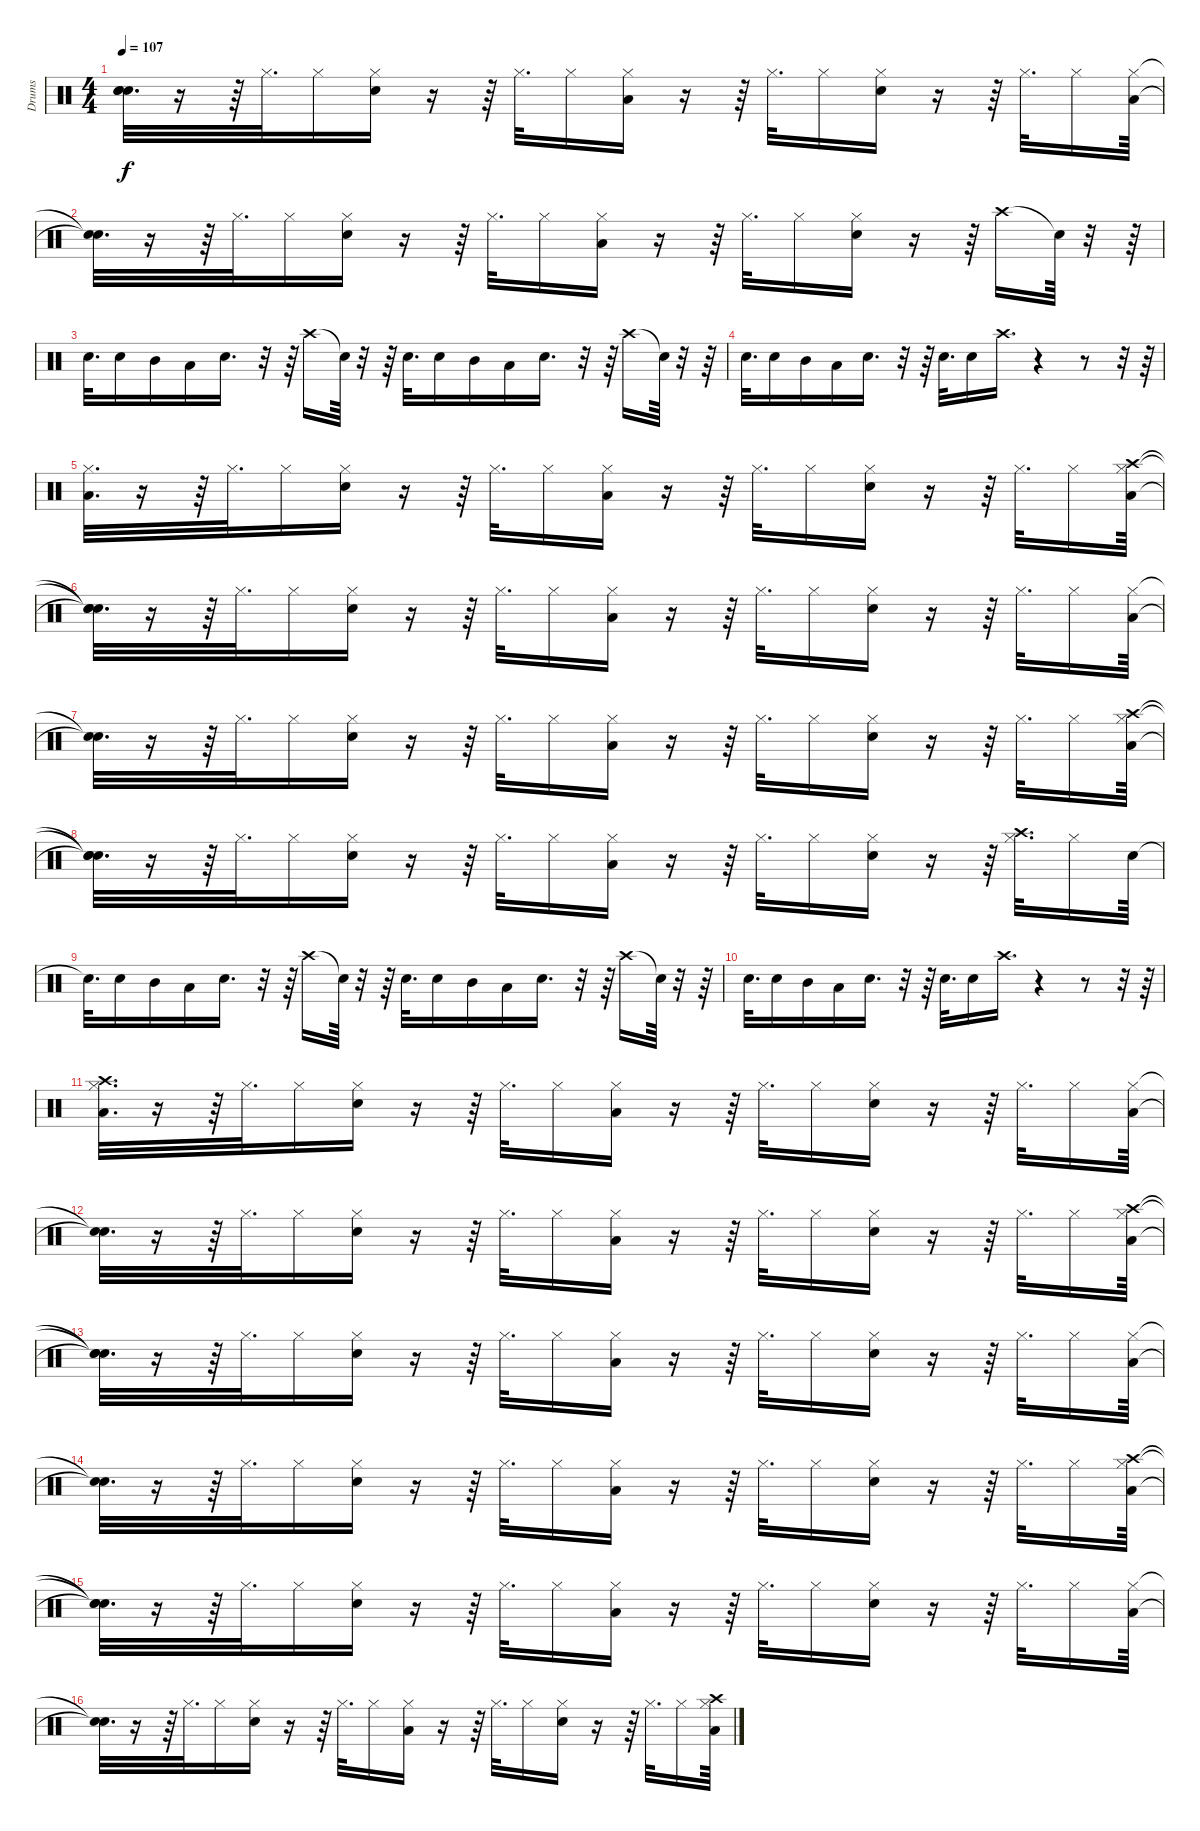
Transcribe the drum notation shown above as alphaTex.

\track ("Drums" "Drums") {instrument percussion}
\staff {score}
\articulation defaults
\ts (4 4)
\tempo 107
\clef neutral
\ks c
("Snare (hit)"{t} "Snare (hit)"{t} "Snare (hit)"{t}).32{d dy f} r.16 r.64 "Hi-Hat (closed)".32{d} "Hi-Hat (closed)".16 ("Hi-Hat (closed)" "Snare (hit) 2").16 r.16 r.64 "Hi-Hat (closed)".32{d} "Hi-Hat (closed)".16 ("Hi-Hat (closed)" "Low Tom (hit)").16 r.16 r.64 "Hi-Hat (closed)".32{d} "Hi-Hat (closed)".16 ("Hi-Hat (closed)" "Snare (hit) 2").16 r.16 r.64 "Hi-Hat (closed)".32{d} "Hi-Hat (closed)".16 ("Hi-Hat (closed)" "Low Tom (hit)").64 |
("Snare (hit)"{t} "Snare (hit)"{t}).32{d} r.16 r.64 "Hi-Hat (closed)".32{d} "Hi-Hat (closed)".16 ("Hi-Hat (closed)" "Snare (hit) 2").16 r.16 r.64 "Hi-Hat (closed)".32{d} "Hi-Hat (closed)".16 ("Hi-Hat (closed)" "Low Tom (hit)").16 r.16 r.64 "Hi-Hat (closed)".32{d} "Hi-Hat (closed)".16 ("Hi-Hat (closed)" "Snare (hit) 2").16 r.16 r.64 "Crash high (hit)".16 "Snare (hit)"{t}.64 r.32 r.64 |
"Snare (hit) 2".32{d} "Snare (hit) 2".16 "Mid Tom (hit)".16 "Low Tom (hit)".16 "Snare (hit) 2".16{d} r.32 r.64 "Crash high (hit)".16 "Snare (hit)"{t}.64 r.32 r.64 "Snare (hit) 2".32{d} "Snare (hit) 2".16 "Mid Tom (hit)".16 "Low Tom (hit)".16 "Snare (hit) 2".16{d} r.32 r.64 "Crash high (hit)".16 "Snare (hit)"{t}.64 r.32 r.64 |
"Snare (hit) 2".32{d} "Snare (hit) 2".16 "Mid Tom (hit)".16 "Low Tom (hit)".16 "Snare (hit) 2".16{d} r.32 r.64 "Snare (hit) 2".32{d} "Snare (hit) 2".16 "Crash high (hit)".16{d} r.4 r.8 r.32 r.64 |
("Hi-Hat (closed)" "Low Tom (hit)").32{d} r.16 r.64 "Hi-Hat (closed)".32{d} "Hi-Hat (closed)".16 ("Hi-Hat (closed)" "Snare (hit) 2").16 r.16 r.64 "Hi-Hat (closed)".32{d} "Hi-Hat (closed)".16 ("Hi-Hat (closed)" "Low Tom (hit)").16 r.16 r.64 "Hi-Hat (closed)".32{d} "Hi-Hat (closed)".16 ("Hi-Hat (closed)" "Snare (hit) 2").16 r.16 r.64 "Hi-Hat (closed)".32{d} "Hi-Hat (closed)".16 ("Hi-Hat (closed)" "Crash high (hit)" "Low Tom (hit)").64 |
("Snare (hit)"{t} "Snare (hit)"{t} "Snare (hit)"{t}).32{d} r.16 r.64 "Hi-Hat (closed)".32{d} "Hi-Hat (closed)".16 ("Hi-Hat (closed)" "Snare (hit) 2").16 r.16 r.64 "Hi-Hat (closed)".32{d} "Hi-Hat (closed)".16 ("Hi-Hat (closed)" "Low Tom (hit)").16 r.16 r.64 "Hi-Hat (closed)".32{d} "Hi-Hat (closed)".16 ("Hi-Hat (closed)" "Snare (hit) 2").16 r.16 r.64 "Hi-Hat (closed)".32{d} "Hi-Hat (closed)".16 ("Hi-Hat (closed)" "Low Tom (hit)").64 |
("Snare (hit)"{t} "Snare (hit)"{t}).32{d} r.16 r.64 "Hi-Hat (closed)".32{d} "Hi-Hat (closed)".16 ("Hi-Hat (closed)" "Snare (hit) 2").16 r.16 r.64 "Hi-Hat (closed)".32{d} "Hi-Hat (closed)".16 ("Hi-Hat (closed)" "Low Tom (hit)").16 r.16 r.64 "Hi-Hat (closed)".32{d} "Hi-Hat (closed)".16 ("Hi-Hat (closed)" "Snare (hit) 2").16 r.16 r.64 "Hi-Hat (closed)".32{d} "Hi-Hat (closed)".16 ("Hi-Hat (closed)" "Low Tom (hit)" "Crash high (hit)").64 |
("Snare (hit)"{t} "Snare (hit)"{t} "Snare (hit)"{t}).32{d} r.16 r.64 "Hi-Hat (closed)".32{d} "Hi-Hat (closed)".16 ("Hi-Hat (closed)" "Snare (hit) 2").16 r.16 r.64 "Hi-Hat (closed)".32{d} "Hi-Hat (closed)".16 ("Hi-Hat (closed)" "Low Tom (hit)").16 r.16 r.64 "Hi-Hat (closed)".32{d} "Hi-Hat (closed)".16 ("Hi-Hat (closed)" "Snare (hit) 2").16 r.16 r.64 ("Crash high (hit)" "Hi-Hat (closed)").32{d} "Hi-Hat (closed)".16 "Snare (hit) 2".64 |
"Snare (hit)"{t}.32{d} "Snare (hit) 2".16 "Mid Tom (hit)".16 "Low Tom (hit)".16 "Snare (hit) 2".16{d} r.32 r.64 "Crash high (hit)".16 "Snare (hit)"{t}.64 r.32 r.64 "Snare (hit) 2".32{d} "Snare (hit) 2".16 "Mid Tom (hit)".16 "Low Tom (hit)".16 "Snare (hit) 2".16{d} r.32 r.64 "Crash high (hit)".16 "Snare (hit)"{t}.64 r.32 r.64 |
"Snare (hit) 2".32{d} "Snare (hit) 2".16 "Mid Tom (hit)".16 "Low Tom (hit)".16 "Snare (hit) 2".16{d} r.32 r.64 "Snare (hit) 2".32{d} "Snare (hit) 2".16 "Crash high (hit)".16{d} r.4 r.8 r.32 r.64 |
("Hi-Hat (closed)" "Crash high (hit)" "Low Tom (hit)").32{d} r.16 r.64 "Hi-Hat (closed)".32{d} "Hi-Hat (closed)".16 ("Hi-Hat (closed)" "Snare (hit) 2").16 r.16 r.64 "Hi-Hat (closed)".32{d} "Hi-Hat (closed)".16 ("Hi-Hat (closed)" "Low Tom (hit)").16 r.16 r.64 "Hi-Hat (closed)".32{d} "Hi-Hat (closed)".16 ("Hi-Hat (closed)" "Snare (hit) 2").16 r.16 r.64 "Hi-Hat (closed)".32{d} "Hi-Hat (closed)".16 ("Hi-Hat (closed)" "Low Tom (hit)").64 |
("Snare (hit)"{t} "Snare (hit)"{t}).32{d} r.16 r.64 "Hi-Hat (closed)".32{d} "Hi-Hat (closed)".16 ("Hi-Hat (closed)" "Snare (hit) 2").16 r.16 r.64 "Hi-Hat (closed)".32{d} "Hi-Hat (closed)".16 ("Hi-Hat (closed)" "Low Tom (hit)").16 r.16 r.64 "Hi-Hat (closed)".32{d} "Hi-Hat (closed)".16 ("Hi-Hat (closed)" "Snare (hit) 2").16 r.16 r.64 "Hi-Hat (closed)".32{d} "Hi-Hat (closed)".16 ("Hi-Hat (closed)" "Crash high (hit)" "Low Tom (hit)").64 |
("Snare (hit)"{t} "Snare (hit)"{t} "Snare (hit)"{t}).32{d} r.16 r.64 "Hi-Hat (closed)".32{d} "Hi-Hat (closed)".16 ("Hi-Hat (closed)" "Snare (hit) 2").16 r.16 r.64 "Hi-Hat (closed)".32{d} "Hi-Hat (closed)".16 ("Hi-Hat (closed)" "Low Tom (hit)").16 r.16 r.64 "Hi-Hat (closed)".32{d} "Hi-Hat (closed)".16 ("Hi-Hat (closed)" "Snare (hit) 2").16 r.16 r.64 "Hi-Hat (closed)".32{d} "Hi-Hat (closed)".16 ("Hi-Hat (closed)" "Low Tom (hit)").64 |
("Snare (hit)"{t} "Snare (hit)"{t}).32{d} r.16 r.64 "Hi-Hat (closed)".32{d} "Hi-Hat (closed)".16 ("Hi-Hat (closed)" "Snare (hit) 2").16 r.16 r.64 "Hi-Hat (closed)".32{d} "Hi-Hat (closed)".16 ("Hi-Hat (closed)" "Low Tom (hit)").16 r.16 r.64 "Hi-Hat (closed)".32{d} "Hi-Hat (closed)".16 ("Hi-Hat (closed)" "Snare (hit) 2").16 r.16 r.64 "Hi-Hat (closed)".32{d} "Hi-Hat (closed)".16 ("Hi-Hat (closed)" "Crash high (hit)" "Low Tom (hit)").64 |
("Snare (hit)"{t} "Snare (hit)"{t} "Snare (hit)"{t}).32{d} r.16 r.64 "Hi-Hat (closed)".32{d} "Hi-Hat (closed)".16 ("Hi-Hat (closed)" "Snare (hit) 2").16 r.16 r.64 "Hi-Hat (closed)".32{d} "Hi-Hat (closed)".16 ("Hi-Hat (closed)" "Low Tom (hit)").16 r.16 r.64 "Hi-Hat (closed)".32{d} "Hi-Hat (closed)".16 ("Hi-Hat (closed)" "Snare (hit) 2").16 r.16 r.64 "Hi-Hat (closed)".32{d} "Hi-Hat (closed)".16 ("Hi-Hat (closed)" "Low Tom (hit)").64 |
("Snare (hit)"{t} "Snare (hit)"{t}).32{d} r.16 r.64 "Hi-Hat (closed)".32{d} "Hi-Hat (closed)".16 ("Hi-Hat (closed)" "Snare (hit) 2").16 r.16 r.64 "Hi-Hat (closed)".32{d} "Hi-Hat (closed)".16 ("Hi-Hat (closed)" "Low Tom (hit)").16 r.16 r.64 "Hi-Hat (closed)".32{d} "Hi-Hat (closed)".16 ("Hi-Hat (closed)" "Snare (hit) 2").16 r.16 r.64 "Hi-Hat (closed)".32{d} "Hi-Hat (closed)".16 ("Hi-Hat (closed)" "Crash high (hit)" "Low Tom (hit)").64
